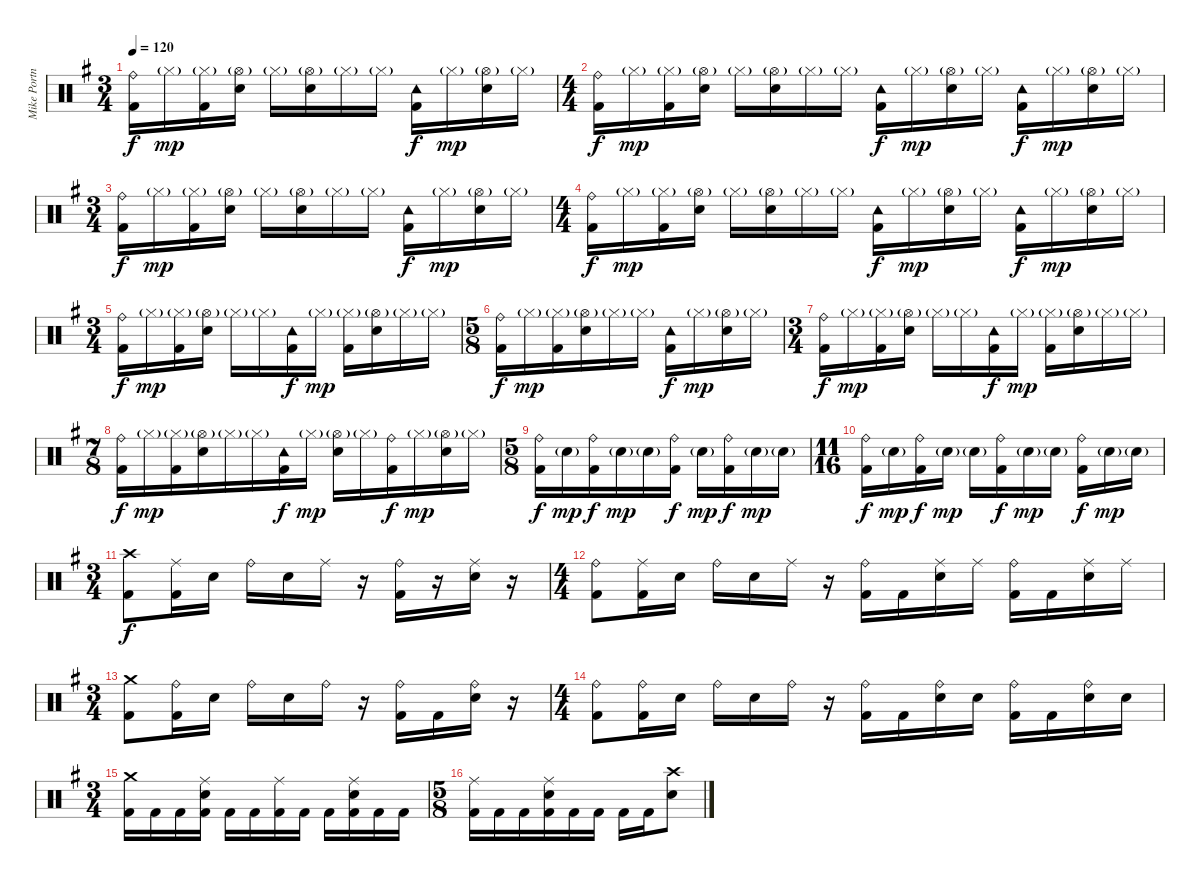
\track ("Mike Portnoy - Drums" "Mike Portn") {instrument percussion}
\staff {score}
\articulation defaults
\ts (3 4)
\tempo 120
\clef neutral
\ks g
("Ride (bell)" "Kick (hit) 2").16{dy f} "Hi-Hat (closed)"{g}.16{dy mp} ("Hi-Hat (closed)"{g} "Kick (hit) 2").16 ("Hi-Hat (open)"{g} "Snare (hit) 2").16 "Hi-Hat (closed)"{g}.16 ("Hi-Hat (open)"{g} "Snare (hit) 2").16 "Hi-Hat (closed)"{g}.16 "Hi-Hat (closed)"{g}.16 ("Tambourine (hit)" "Kick (hit) 2").16{dy f} "Hi-Hat (closed)"{g}.16{dy mp} ("Hi-Hat (open)"{g} "Snare (hit) 2").16 "Hi-Hat (closed)"{g}.16 |
\ts (4 4)
("Ride (bell)" "Kick (hit) 2").16{dy f} "Hi-Hat (closed)"{g}.16{dy mp} ("Hi-Hat (closed)"{g} "Kick (hit) 2").16 ("Hi-Hat (open)"{g} "Snare (hit) 2").16 "Hi-Hat (closed)"{g}.16 ("Hi-Hat (open)"{g} "Snare (hit) 2").16 "Hi-Hat (closed)"{g}.16 "Hi-Hat (closed)"{g}.16 ("Tambourine (hit)" "Kick (hit) 2").16{dy f} "Hi-Hat (closed)"{g}.16{dy mp} ("Hi-Hat (open)"{g} "Snare (hit) 2").16 "Hi-Hat (closed)"{g}.16 ("Tambourine (hit)" "Kick (hit) 2").16{dy f} "Hi-Hat (closed)"{g}.16{dy mp} ("Hi-Hat (open)"{g} "Snare (hit) 2").16 "Hi-Hat (closed)"{g}.16 |
\ts (3 4)
("Ride (bell)" "Kick (hit) 2").16{dy f} "Hi-Hat (closed)"{g}.16{dy mp} ("Hi-Hat (closed)"{g} "Kick (hit) 2").16 ("Hi-Hat (open)"{g} "Snare (hit) 2").16 "Hi-Hat (closed)"{g}.16 ("Hi-Hat (open)"{g} "Snare (hit) 2").16 "Hi-Hat (closed)"{g}.16 "Hi-Hat (closed)"{g}.16 ("Tambourine (hit)" "Kick (hit) 2").16{dy f} "Hi-Hat (closed)"{g}.16{dy mp} ("Hi-Hat (open)"{g} "Snare (hit) 2").16 "Hi-Hat (closed)"{g}.16 |
\ts (4 4)
("Ride (bell)" "Kick (hit) 2").16{dy f} "Hi-Hat (closed)"{g}.16{dy mp} ("Hi-Hat (closed)"{g} "Kick (hit) 2").16 ("Hi-Hat (open)"{g} "Snare (hit) 2").16 "Hi-Hat (closed)"{g}.16 ("Hi-Hat (open)"{g} "Snare (hit) 2").16 "Hi-Hat (closed)"{g}.16 "Hi-Hat (closed)"{g}.16 ("Tambourine (hit)" "Kick (hit) 2").16{dy f} "Hi-Hat (closed)"{g}.16{dy mp} ("Hi-Hat (open)"{g} "Snare (hit) 2").16 "Hi-Hat (closed)"{g}.16 ("Tambourine (hit)" "Kick (hit) 2").16{dy f} "Hi-Hat (closed)"{g}.16{dy mp} ("Hi-Hat (open)"{g} "Snare (hit) 2").16 "Hi-Hat (closed)"{g}.16 |
\ts (3 4)
("Ride (bell)" "Kick (hit) 2").16{dy f} "Hi-Hat (closed)"{g}.16{dy mp} ("Hi-Hat (closed)"{g} "Kick (hit) 2").16 ("Hi-Hat (open)"{g} "Snare (hit) 2").16 "Hi-Hat (closed)"{g}.16 "Hi-Hat (closed)"{g}.16 ("Tambourine (hit)" "Kick (hit) 2").16{dy f} "Hi-Hat (closed)"{g}.16{dy mp} ("Hi-Hat (closed)"{g} "Kick (hit) 2").16 ("Hi-Hat (open)"{g} "Snare (hit) 2").16 "Hi-Hat (closed)"{g}.16 "Hi-Hat (closed)"{g}.16 |
\ts (5 8)
("Ride (bell)" "Kick (hit) 2").16{dy f} "Hi-Hat (closed)"{g}.16{dy mp} ("Hi-Hat (closed)"{g} "Kick (hit) 2").16 ("Hi-Hat (open)"{g} "Snare (hit) 2").16 "Hi-Hat (closed)"{g}.16 "Hi-Hat (closed)"{g}.16 ("Tambourine (hit)" "Kick (hit) 2").16{dy f} "Hi-Hat (closed)"{g}.16{dy mp} ("Hi-Hat (open)"{g} "Snare (hit) 2").16 "Hi-Hat (closed)"{g}.16 |
\ts (3 4)
("Ride (bell)" "Kick (hit) 2").16{dy f} "Hi-Hat (closed)"{g}.16{dy mp} ("Hi-Hat (closed)"{g} "Kick (hit) 2").16 ("Hi-Hat (open)"{g} "Snare (hit) 2").16 "Hi-Hat (closed)"{g}.16 "Hi-Hat (closed)"{g}.16 ("Tambourine (hit)" "Kick (hit) 2").16{dy f} "Hi-Hat (closed)"{g}.16{dy mp} ("Hi-Hat (closed)"{g} "Kick (hit) 2").16 ("Hi-Hat (open)"{g} "Snare (hit) 2").16 "Hi-Hat (closed)"{g}.16 "Hi-Hat (closed)"{g}.16 |
\ts (7 8)
("Ride (bell)" "Kick (hit) 2").16{dy f} "Hi-Hat (closed)"{g}.16{dy mp} ("Hi-Hat (closed)"{g} "Kick (hit) 2").16 ("Hi-Hat (open)"{g} "Snare (hit) 2").16 "Hi-Hat (closed)"{g}.16 "Hi-Hat (closed)"{g}.16 ("Tambourine (hit)" "Kick (hit) 2").16{dy f} "Hi-Hat (closed)"{g}.16{dy mp} ("Hi-Hat (open)"{g} "Snare (hit) 2").16 "Hi-Hat (closed)"{g}.16 ("Ride (bell)" "Kick (hit) 2").16{dy f} "Hi-Hat (closed)"{g}.16{dy mp} ("Hi-Hat (open)"{g} "Snare (hit) 2").16 "Hi-Hat (closed)"{g}.16 |
\ts (5 8)
("Ride (bell)" "Kick (hit) 2").16{dy f} "Snare (hit) 2"{g}.16{dy mp} ("Ride (bell)" "Kick (hit) 2").16{dy f} "Snare (hit) 2"{g}.16{dy mp} "Snare (hit) 2"{g}.16 ("Ride (bell)" "Kick (hit) 2").16{dy f} "Snare (hit) 2"{g}.16{dy mp} ("Ride (bell)" "Kick (hit) 2").16{dy f} "Snare (hit) 2"{g}.16{dy mp} "Snare (hit) 2"{g}.16 |
\ts (11 16)
("Ride (bell)" "Kick (hit) 2").16{dy f} "Snare (hit) 2"{g}.16{dy mp} ("Ride (bell)" "Kick (hit) 2").16{dy f} "Snare (hit) 2"{g}.16{dy mp} "Snare (hit) 2"{g}.16 ("Ride (bell)" "Kick (hit) 2").16{dy f} "Snare (hit) 2"{g}.16{dy mp} "Snare (hit) 2"{g}.16 ("Ride (bell)" "Kick (hit) 2").16{dy f} "Snare (hit) 2"{g}.16{dy mp} "Snare (hit) 2"{g}.16 |
\ts (3 4)
("Crash high (hit)" "Kick (hit) 2").8{dy f} ("Ride (middle)" "Kick (hit) 2").16 "Snare (hit) 2".16 "Ride (bell)".16 "Snare (hit) 2".16 "Ride (middle)".16 r.16 ("Ride (bell)" "Kick (hit) 2").16 r.16 ("Ride (middle)" "Snare (hit) 2").16 r.16 |
\ts (4 4)
("Ride (bell)" "Kick (hit) 2").8 ("Ride (middle)" "Kick (hit) 2").16 "Snare (hit) 2".16 "Ride (bell)".16 "Snare (hit) 2".16 "Ride (middle)".16 r.16 ("Ride (bell)" "Kick (hit) 2").16 "Kick (hit) 2".16 ("Ride (middle)" "Snare (hit) 2").16 "Ride (middle)".16 ("Ride (bell)" "Kick (hit) 2").16 "Kick (hit) 2".16 ("Ride (middle)" "Snare (hit) 2").16 "Ride (middle)".16 |
\ts (3 4)
("Crash medium (hit)" "Kick (hit) 2").8 ("Ride (bell)" "Kick (hit) 2").16 "Snare (hit) 2".16 "Ride (bell)".16 "Snare (hit) 2".16 "Ride (bell)".16 r.16 ("Ride (bell)" "Kick (hit) 2").16 "Kick (hit) 2".16 ("Ride (bell)" "Snare (hit) 2").16 r.16 |
\ts (4 4)
("Ride (bell)" "Kick (hit) 2").8 ("Ride (bell)" "Kick (hit) 2").16 "Snare (hit) 2".16 "Ride (bell)".16 "Snare (hit) 2".16 "Ride (bell)".16 r.16 ("Ride (bell)" "Kick (hit) 2").16 "Kick (hit) 2".16 ("Ride (bell)" "Snare (hit) 2").16 "Snare (hit) 2".16 ("Ride (bell)" "Kick (hit) 2").16 "Kick (hit) 2".16 ("Ride (bell)" "Snare (hit) 2").16 "Snare (hit) 2".16 |
\ts (3 4)
("Crash medium (hit)" "Kick (hit) 2").16 "Kick (hit) 2".16 "Kick (hit) 2".16 ("Ride (middle)" "Snare (hit) 2" "Kick (hit) 2").16 "Kick (hit) 2".16 "Kick (hit) 2".16 ("Ride (middle)" "Kick (hit) 2").16 "Kick (hit) 2".16 "Kick (hit) 2".16 ("Ride (middle)" "Snare (hit) 2" "Kick (hit) 2").16 "Kick (hit) 2".16 "Kick (hit) 2".16 |
\ts (5 8)
("Ride (middle)" "Kick (hit) 2").16 "Kick (hit) 2".16 "Kick (hit) 2".16 ("Ride (middle)" "Snare (hit) 2" "Kick (hit) 2").16 "Kick (hit) 2".16 "Kick (hit) 2".16 "Kick (hit) 2".16 "Kick (hit) 2".16 ("Crash high (hit)" "Snare (hit) 2").8
